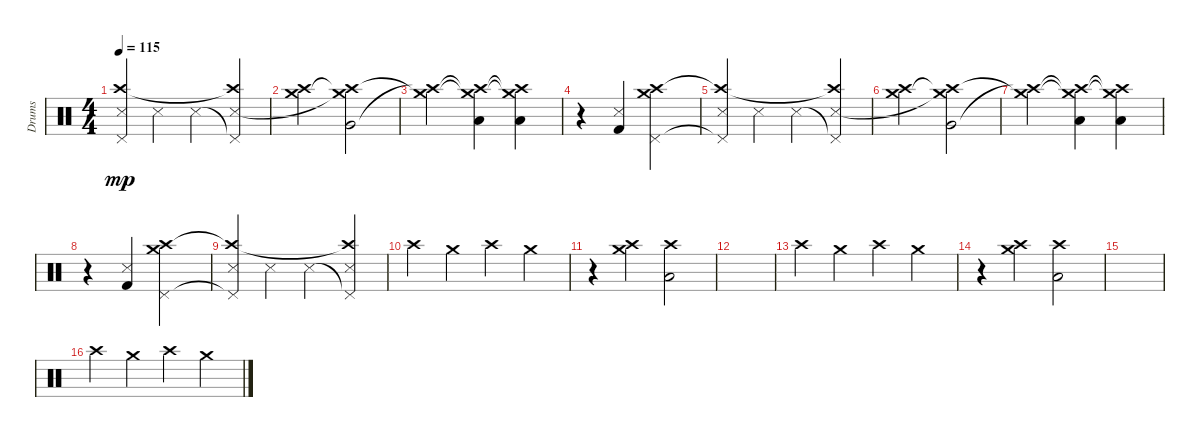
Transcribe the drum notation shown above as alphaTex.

\track ("Drums" "Drums") {instrument percussion}
\staff {score}
\articulation defaults
\ts (4 4)
\tempo 115
\clef neutral
\ks c
("Pedal Hi-Hat (hit)"{t} "Crash high (hit)"{t} "Snare (side stick) 3").4{dy mp} "Snare (side stick) 3".4 "Snare (side stick) 3".4 ("Pedal Hi-Hat (hit)"{t} "Crash high (hit)"{t} "Snare (side stick) 3").4 |
("Crash high (hit)" "Crash medium (hit)").2 ("Very Low Tom (hit)" "Crash high (hit)"{t} "Crash medium (hit)"{t}).2 |
("Crash high (hit)"{t} "Crash medium (hit)"{t}).2 ("Crash high (hit)"{t} "Crash medium (hit)"{t} "Low Floor Tom (hit)").4 ("Crash high (hit)"{t} "Crash medium (hit)"{t} "Low Floor Tom (hit)").4 |
r.4 ("Kick (hit) 2" "Snare (side stick) 3").4 ("Pedal Hi-Hat (hit)" "Crash high (hit)" "Crash medium (hit)").2 |
("Pedal Hi-Hat (hit)"{t} "Crash high (hit)"{t} "Snare (side stick) 3").4 "Snare (side stick) 3".4 "Snare (side stick) 3".4 ("Pedal Hi-Hat (hit)"{t} "Crash high (hit)"{t} "Snare (side stick) 3").4 |
("Crash high (hit)" "Crash medium (hit)").2 ("Very Low Tom (hit)" "Crash high (hit)"{t} "Crash medium (hit)"{t}).2 |
("Crash high (hit)"{t} "Crash medium (hit)"{t}).2 ("Crash high (hit)"{t} "Crash medium (hit)"{t} "Low Floor Tom (hit)").4 ("Crash high (hit)"{t} "Crash medium (hit)"{t} "Low Floor Tom (hit)").4 |
r.4 ("Kick (hit) 2" "Snare (side stick) 3").4 ("Pedal Hi-Hat (hit)" "Crash high (hit)" "Crash medium (hit)").2 |
("Pedal Hi-Hat (hit)"{t} "Crash high (hit)"{t} "Snare (side stick) 3").4 "Snare (side stick) 3".4 "Snare (side stick) 3".4 ("Pedal Hi-Hat (hit)"{t} "Crash high (hit)"{t} "Snare (side stick) 3").4 |
"Crash high (hit)".4 "Crash medium (hit)".4 "Crash high (hit)".4 "Crash medium (hit)".4 |
r.4 ("Crash high (hit)" "Crash medium (hit)").4 ("Crash high (hit)" "Low Floor Tom (hit)").2 |
|
"Crash high (hit)".4 "Crash medium (hit)".4 "Crash high (hit)".4 "Crash medium (hit)".4 |
r.4 ("Crash high (hit)" "Crash medium (hit)").4 ("Crash high (hit)" "Low Floor Tom (hit)").2 |
|
"Crash high (hit)".4 "Crash medium (hit)".4 "Crash high (hit)".4 "Crash medium (hit)".4
